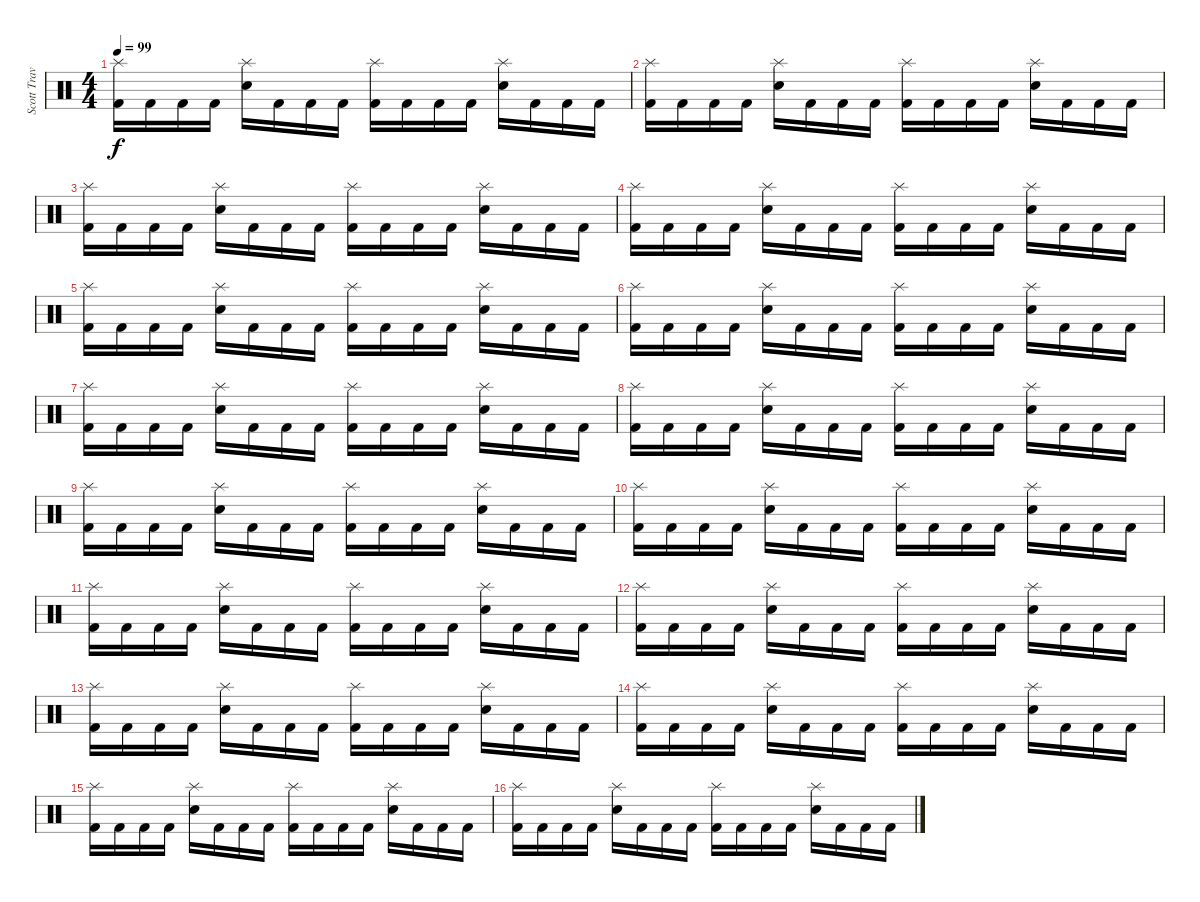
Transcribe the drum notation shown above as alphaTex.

\track ("Scott Travis" "Scott Trav") {instrument percussion}
\staff {score}
\articulation defaults
\ts (4 4)
\tempo 99
\clef neutral
\ks c
("Splash (hit)" "Kick (hit) 2").16{dy f} "Kick (hit) 2".16 "Kick (hit) 2".16 "Kick (hit) 2".16 ("Splash (hit)" "Electric Snare (hit)").16 "Kick (hit) 2".16 "Kick (hit) 2".16 "Kick (hit) 2".16 ("Splash (hit)" "Kick (hit) 2").16 "Kick (hit) 2".16 "Kick (hit) 2".16 "Kick (hit) 2".16 ("Splash (hit)" "Electric Snare (hit)").16 "Kick (hit) 2".16 "Kick (hit) 2".16 "Kick (hit) 2".16 |
("Splash (hit)" "Kick (hit) 2").16 "Kick (hit) 2".16 "Kick (hit) 2".16 "Kick (hit) 2".16 ("Splash (hit)" "Electric Snare (hit)").16 "Kick (hit) 2".16 "Kick (hit) 2".16 "Kick (hit) 2".16 ("Splash (hit)" "Kick (hit) 2").16 "Kick (hit) 2".16 "Kick (hit) 2".16 "Kick (hit) 2".16 ("Splash (hit)" "Electric Snare (hit)").16 "Kick (hit) 2".16 "Kick (hit) 2".16 "Kick (hit) 2".16 |
("Splash (hit)" "Kick (hit) 2").16 "Kick (hit) 2".16 "Kick (hit) 2".16 "Kick (hit) 2".16 ("Splash (hit)" "Electric Snare (hit)").16 "Kick (hit) 2".16 "Kick (hit) 2".16 "Kick (hit) 2".16 ("Splash (hit)" "Kick (hit) 2").16 "Kick (hit) 2".16 "Kick (hit) 2".16 "Kick (hit) 2".16 ("Splash (hit)" "Electric Snare (hit)").16 "Kick (hit) 2".16 "Kick (hit) 2".16 "Kick (hit) 2".16 |
("Splash (hit)" "Kick (hit) 2").16 "Kick (hit) 2".16 "Kick (hit) 2".16 "Kick (hit) 2".16 ("Splash (hit)" "Electric Snare (hit)").16 "Kick (hit) 2".16 "Kick (hit) 2".16 "Kick (hit) 2".16 ("Splash (hit)" "Kick (hit) 2").16 "Kick (hit) 2".16 "Kick (hit) 2".16 "Kick (hit) 2".16 ("Splash (hit)" "Electric Snare (hit)").16 "Kick (hit) 2".16 "Kick (hit) 2".16 "Kick (hit) 2".16 |
("Splash (hit)" "Kick (hit) 2").16 "Kick (hit) 2".16 "Kick (hit) 2".16 "Kick (hit) 2".16 ("Splash (hit)" "Electric Snare (hit)").16 "Kick (hit) 2".16 "Kick (hit) 2".16 "Kick (hit) 2".16 ("Splash (hit)" "Kick (hit) 2").16 "Kick (hit) 2".16 "Kick (hit) 2".16 "Kick (hit) 2".16 ("Splash (hit)" "Electric Snare (hit)").16 "Kick (hit) 2".16 "Kick (hit) 2".16 "Kick (hit) 2".16 |
("Splash (hit)" "Kick (hit) 2").16 "Kick (hit) 2".16 "Kick (hit) 2".16 "Kick (hit) 2".16 ("Splash (hit)" "Electric Snare (hit)").16 "Kick (hit) 2".16 "Kick (hit) 2".16 "Kick (hit) 2".16 ("Splash (hit)" "Kick (hit) 2").16 "Kick (hit) 2".16 "Kick (hit) 2".16 "Kick (hit) 2".16 ("Splash (hit)" "Electric Snare (hit)").16 "Kick (hit) 2".16 "Kick (hit) 2".16 "Kick (hit) 2".16 |
("Splash (hit)" "Kick (hit) 2").16 "Kick (hit) 2".16 "Kick (hit) 2".16 "Kick (hit) 2".16 ("Splash (hit)" "Electric Snare (hit)").16 "Kick (hit) 2".16 "Kick (hit) 2".16 "Kick (hit) 2".16 ("Splash (hit)" "Kick (hit) 2").16 "Kick (hit) 2".16 "Kick (hit) 2".16 "Kick (hit) 2".16 ("Splash (hit)" "Electric Snare (hit)").16 "Kick (hit) 2".16 "Kick (hit) 2".16 "Kick (hit) 2".16 |
("Splash (hit)" "Kick (hit) 2").16 "Kick (hit) 2".16 "Kick (hit) 2".16 "Kick (hit) 2".16 ("Splash (hit)" "Electric Snare (hit)").16 "Kick (hit) 2".16 "Kick (hit) 2".16 "Kick (hit) 2".16 ("Splash (hit)" "Kick (hit) 2").16 "Kick (hit) 2".16 "Kick (hit) 2".16 "Kick (hit) 2".16 ("Splash (hit)" "Electric Snare (hit)").16 "Kick (hit) 2".16 "Kick (hit) 2".16 "Kick (hit) 2".16 |
("Splash (hit)" "Kick (hit) 2").16 "Kick (hit) 2".16 "Kick (hit) 2".16 "Kick (hit) 2".16 ("Splash (hit)" "Electric Snare (hit)").16 "Kick (hit) 2".16 "Kick (hit) 2".16 "Kick (hit) 2".16 ("Splash (hit)" "Kick (hit) 2").16 "Kick (hit) 2".16 "Kick (hit) 2".16 "Kick (hit) 2".16 ("Splash (hit)" "Electric Snare (hit)").16 "Kick (hit) 2".16 "Kick (hit) 2".16 "Kick (hit) 2".16 |
("Splash (hit)" "Kick (hit) 2").16 "Kick (hit) 2".16 "Kick (hit) 2".16 "Kick (hit) 2".16 ("Splash (hit)" "Electric Snare (hit)").16 "Kick (hit) 2".16 "Kick (hit) 2".16 "Kick (hit) 2".16 ("Splash (hit)" "Kick (hit) 2").16 "Kick (hit) 2".16 "Kick (hit) 2".16 "Kick (hit) 2".16 ("Splash (hit)" "Electric Snare (hit)").16 "Kick (hit) 2".16 "Kick (hit) 2".16 "Kick (hit) 2".16 |
("Splash (hit)" "Kick (hit) 2").16 "Kick (hit) 2".16 "Kick (hit) 2".16 "Kick (hit) 2".16 ("Splash (hit)" "Electric Snare (hit)").16 "Kick (hit) 2".16 "Kick (hit) 2".16 "Kick (hit) 2".16 ("Splash (hit)" "Kick (hit) 2").16 "Kick (hit) 2".16 "Kick (hit) 2".16 "Kick (hit) 2".16 ("Splash (hit)" "Electric Snare (hit)").16 "Kick (hit) 2".16 "Kick (hit) 2".16 "Kick (hit) 2".16 |
("Splash (hit)" "Kick (hit) 2").16 "Kick (hit) 2".16 "Kick (hit) 2".16 "Kick (hit) 2".16 ("Splash (hit)" "Electric Snare (hit)").16 "Kick (hit) 2".16 "Kick (hit) 2".16 "Kick (hit) 2".16 ("Splash (hit)" "Kick (hit) 2").16 "Kick (hit) 2".16 "Kick (hit) 2".16 "Kick (hit) 2".16 ("Splash (hit)" "Electric Snare (hit)").16 "Kick (hit) 2".16 "Kick (hit) 2".16 "Kick (hit) 2".16 |
("Splash (hit)" "Kick (hit) 2").16 "Kick (hit) 2".16 "Kick (hit) 2".16 "Kick (hit) 2".16 ("Splash (hit)" "Electric Snare (hit)").16 "Kick (hit) 2".16 "Kick (hit) 2".16 "Kick (hit) 2".16 ("Splash (hit)" "Kick (hit) 2").16 "Kick (hit) 2".16 "Kick (hit) 2".16 "Kick (hit) 2".16 ("Splash (hit)" "Electric Snare (hit)").16 "Kick (hit) 2".16 "Kick (hit) 2".16 "Kick (hit) 2".16 |
("Splash (hit)" "Kick (hit) 2").16 "Kick (hit) 2".16 "Kick (hit) 2".16 "Kick (hit) 2".16 ("Splash (hit)" "Electric Snare (hit)").16 "Kick (hit) 2".16 "Kick (hit) 2".16 "Kick (hit) 2".16 ("Splash (hit)" "Kick (hit) 2").16 "Kick (hit) 2".16 "Kick (hit) 2".16 "Kick (hit) 2".16 ("Splash (hit)" "Electric Snare (hit)").16 "Kick (hit) 2".16 "Kick (hit) 2".16 "Kick (hit) 2".16 |
("Splash (hit)" "Kick (hit) 2").16 "Kick (hit) 2".16 "Kick (hit) 2".16 "Kick (hit) 2".16 ("Splash (hit)" "Electric Snare (hit)").16 "Kick (hit) 2".16 "Kick (hit) 2".16 "Kick (hit) 2".16 ("Splash (hit)" "Kick (hit) 2").16 "Kick (hit) 2".16 "Kick (hit) 2".16 "Kick (hit) 2".16 ("Splash (hit)" "Electric Snare (hit)").16 "Kick (hit) 2".16 "Kick (hit) 2".16 "Kick (hit) 2".16 |
("Splash (hit)" "Kick (hit) 2").16 "Kick (hit) 2".16 "Kick (hit) 2".16 "Kick (hit) 2".16 ("Splash (hit)" "Electric Snare (hit)").16 "Kick (hit) 2".16 "Kick (hit) 2".16 "Kick (hit) 2".16 ("Splash (hit)" "Kick (hit) 2").16 "Kick (hit) 2".16 "Kick (hit) 2".16 "Kick (hit) 2".16 ("Splash (hit)" "Electric Snare (hit)").16 "Kick (hit) 2".16 "Kick (hit) 2".16 "Kick (hit) 2".16
